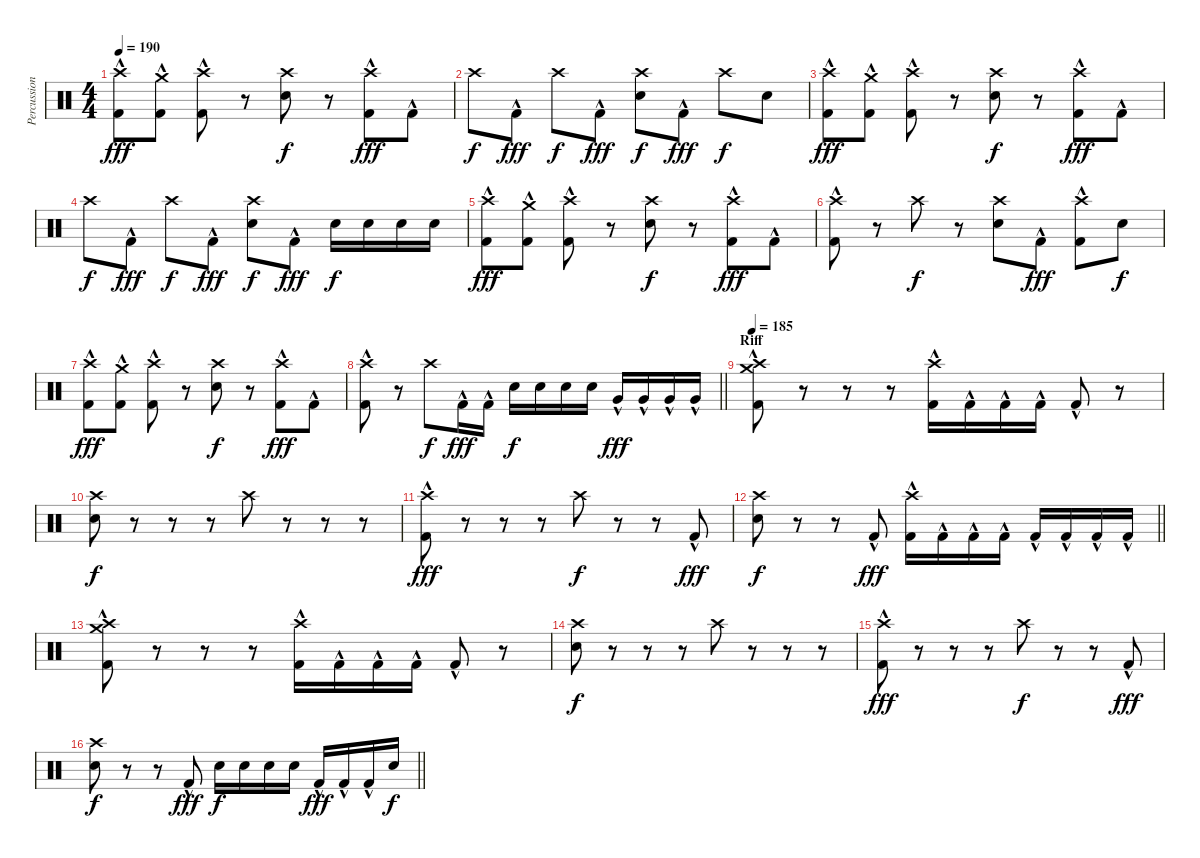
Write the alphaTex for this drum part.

\track ("Percussion" "Percussion") {instrument percussion}
\staff {score}
\articulation defaults
\ts (4 4)
\tempo 190
\clef neutral
\ks c
("Crash high (hit)" "Kick (hit) 2"{hac}).8{dy fff} ("Crash medium (hit)" "Kick (hit) 2"{hac}).8 ("Crash high (hit)" "Kick (hit) 2"{hac}).8 r.8 ("Crash high (hit)" "Snare (hit) 2").8{dy f} r.8 ("Crash high (hit)" "Kick (hit) 2"{hac}).8{dy fff} "Kick (hit) 2"{hac}.8 |
"Crash high (hit)".8{dy f} "Kick (hit) 2"{hac}.8{dy fff} "Crash high (hit)".8{dy f} "Kick (hit) 2"{hac}.8{dy fff} ("Crash high (hit)" "Snare (hit) 2").8{dy f} "Kick (hit) 2"{hac}.8{dy fff} "Crash high (hit)".8{dy f} "Snare (hit) 2".8 |
("Crash high (hit)" "Kick (hit) 2"{hac}).8{dy fff} ("Crash medium (hit)" "Kick (hit) 2"{hac}).8 ("Crash high (hit)" "Kick (hit) 2"{hac}).8 r.8 ("Crash high (hit)" "Snare (hit) 2").8{dy f} r.8 ("Crash high (hit)" "Kick (hit) 2"{hac}).8{dy fff} "Kick (hit) 2"{hac}.8 |
"Crash high (hit)".8{dy f} "Kick (hit) 2"{hac}.8{dy fff} "Crash high (hit)".8{dy f} "Kick (hit) 2"{hac}.8{dy fff} ("Crash high (hit)" "Snare (hit) 2").8{dy f} "Kick (hit) 2"{hac}.8{dy fff} "Snare (hit) 2".16{dy f} "Snare (hit) 2".16 "Snare (hit) 2".16 "Snare (hit) 2".16 |
("Crash high (hit)" "Kick (hit) 2"{hac}).8{dy fff} ("Crash medium (hit)" "Kick (hit) 2"{hac}).8 ("Crash high (hit)" "Kick (hit) 2"{hac}).8 r.8 ("Crash high (hit)" "Snare (hit) 2").8{dy f} r.8 ("Crash high (hit)" "Kick (hit) 2"{hac}).8{dy fff} "Kick (hit) 2"{hac}.8 |
("Crash high (hit)" "Kick (hit) 2"{hac}).8 r.8 "Crash high (hit)".8{dy f} r.8 ("Crash high (hit)" "Snare (hit) 2").8 "Kick (hit) 2"{hac}.8{dy fff} ("Crash high (hit)" "Kick (hit) 2"{hac}).8 "Snare (hit) 2".8{dy f} |
("Crash high (hit)" "Kick (hit) 2"{hac}).8{dy fff} ("Crash medium (hit)" "Kick (hit) 2"{hac}).8 ("Crash high (hit)" "Kick (hit) 2"{hac}).8 r.8 ("Crash high (hit)" "Snare (hit) 2").8{dy f} r.8 ("Crash high (hit)" "Kick (hit) 2"{hac}).8{dy fff} "Kick (hit) 2"{hac}.8 |
\barLineRight lightlight
("Crash high (hit)" "Kick (hit) 2"{hac}).8 r.8 "Crash high (hit)".8{dy f} "Kick (hit) 2"{hac}.16{dy fff} "Kick (hit) 2"{hac}.16 "Snare (hit) 2".16{dy f} "Snare (hit) 2".16 "Snare (hit) 2".16 "Snare (hit) 2".16 "Very Low Tom (hit)"{hac}.16{dy fff} "Very Low Tom (hit)"{hac}.16 "Very Low Tom (hit)"{hac}.16 "Very Low Tom (hit)"{hac}.16 |
\section ("" "Riff")
\tempo 185
("Crash high (hit)" "Crash medium (hit)" "Kick (hit) 2"{hac}).8 r.8 r.8 r.8 ("Crash high (hit)" "Kick (hit) 2"{hac}).16 "Kick (hit) 2"{hac}.16 "Kick (hit) 2"{hac}.16 "Kick (hit) 2"{hac}.16 "Kick (hit) 2"{hac}.8 r.8 |
("Crash high (hit)" "Snare (hit) 2").8{dy f} r.8 r.8 r.8 "Crash high (hit)".8 r.8 r.8 r.8 |
("Crash high (hit)" "Kick (hit) 2"{hac}).8{dy fff} r.8 r.8 r.8 "Crash high (hit)".8{dy f} r.8 r.8 "Kick (hit) 2"{hac}.8{dy fff} |
\barLineRight lightlight
("Crash high (hit)" "Snare (hit) 2").8{dy f} r.8 r.8 "Kick (hit) 2"{hac}.8{dy fff} ("Crash high (hit)" "Kick (hit) 2"{hac}).16 "Kick (hit) 2"{hac}.16 "Kick (hit) 2"{hac}.16 "Kick (hit) 2"{hac}.16 "Kick (hit) 2"{hac}.16 "Kick (hit) 2"{hac}.16 "Kick (hit) 2"{hac}.16 "Kick (hit) 2"{hac}.16 |
("Crash high (hit)" "Crash medium (hit)" "Kick (hit) 2"{hac}).8 r.8 r.8 r.8 ("Crash high (hit)" "Kick (hit) 2"{hac}).16 "Kick (hit) 2"{hac}.16 "Kick (hit) 2"{hac}.16 "Kick (hit) 2"{hac}.16 "Kick (hit) 2"{hac}.8 r.8 |
("Crash high (hit)" "Snare (hit) 2").8{dy f} r.8 r.8 r.8 "Crash high (hit)".8 r.8 r.8 r.8 |
("Crash high (hit)" "Kick (hit) 2"{hac}).8{dy fff} r.8 r.8 r.8 "Crash high (hit)".8{dy f} r.8 r.8 "Kick (hit) 2"{hac}.8{dy fff} |
\barLineRight lightlight
("Crash high (hit)" "Snare (hit) 2").8{dy f} r.8 r.8 "Kick (hit) 2"{hac}.8{dy fff} "Snare (hit) 2".16{dy f} "Snare (hit) 2".16 "Snare (hit) 2".16 "Snare (hit) 2".16 "Kick (hit) 2"{hac}.16{dy fff} "Kick (hit) 2"{hac}.16 "Kick (hit) 2"{hac}.16 "Snare (hit) 2".16{dy f}
